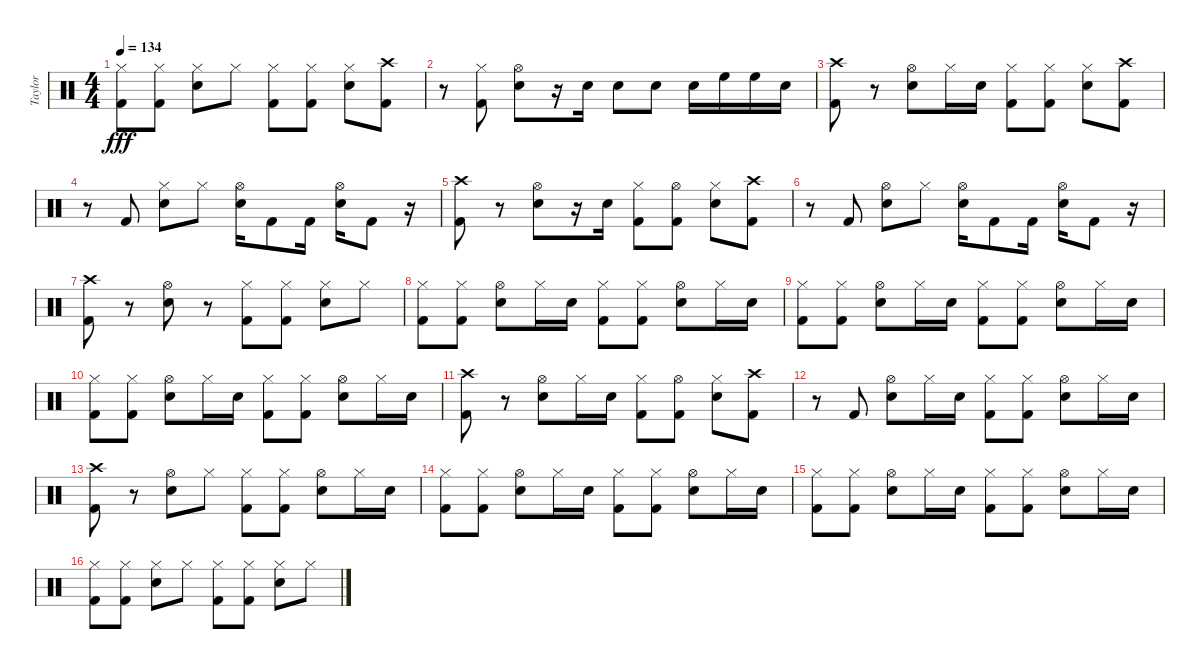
\track ("Taylor" "Taylor") {instrument percussion}
\staff {score}
\articulation defaults
\ts (4 4)
\tempo 134
\clef neutral
\ks c
("Kick (hit) 2" "Hi-Hat (closed)").8{dy fff} ("Kick (hit) 2" "Hi-Hat (closed)").8 ("Snare (hit) 2" "Hi-Hat (closed)").8 "Hi-Hat (closed)".8 ("Kick (hit) 2" "Hi-Hat (closed)").8 ("Kick (hit) 2" "Hi-Hat (closed)").8 ("Snare (hit) 2" "Hi-Hat (closed)").8 ("Kick (hit) 2" "Crash high (hit)").8 |
r.8 ("Kick (hit) 2" "Hi-Hat (closed)").8 ("Snare (hit) 2" "Hi-Hat (open)").8 r.16 "Snare (hit) 2".16 "Snare (hit) 2".8 "Snare (hit) 2".8 "Snare (hit) 2".16 "High Floor Tom (hit)".16 "High Floor Tom (hit)".16 "Snare (hit) 2".16 |
("Kick (hit) 2" "Crash high (hit)").8 r.8 ("Snare (hit) 2" "Hi-Hat (open)").8 "Hi-Hat (closed)".16 "Snare (hit) 2".16 ("Kick (hit) 2" "Hi-Hat (closed)").8 ("Kick (hit) 2" "Hi-Hat (closed)").8 ("Snare (hit) 2" "Hi-Hat (closed)").8 ("Kick (hit) 2" "Crash high (hit)").8 |
r.8 "Kick (hit) 2".8 ("Snare (hit) 2" "Hi-Hat (closed)").8 "Hi-Hat (closed)".8 ("Snare (hit) 2" "Hi-Hat (open)").16 "Kick (hit) 2".8 "Kick (hit) 2".16 ("Snare (hit) 2" "Hi-Hat (open)").16 "Kick (hit) 2".8 r.16 |
("Kick (hit) 2" "Crash high (hit)").8 r.8 ("Snare (hit) 2" "Hi-Hat (open)").8 r.16 "Snare (hit) 2".16 ("Kick (hit) 2" "Hi-Hat (closed)").8 ("Kick (hit) 2" "Hi-Hat (open)").8 ("Snare (hit) 2" "Hi-Hat (closed)").8 ("Kick (hit) 2" "Crash high (hit)").8 |
r.8 "Kick (hit) 2".8 ("Snare (hit) 2" "Hi-Hat (open)").8 "Hi-Hat (closed)".8 ("Snare (hit) 2" "Hi-Hat (open)").16 "Kick (hit) 2".8 "Kick (hit) 2".16 ("Snare (hit) 2" "Hi-Hat (open)").16 "Kick (hit) 2".8 r.16 |
("Kick (hit) 2" "Crash high (hit)").8 r.8 ("Snare (hit) 2" "Hi-Hat (open)").8 r.8 ("Kick (hit) 2" "Hi-Hat (closed)").8 ("Kick (hit) 2" "Hi-Hat (closed)").8 ("Snare (hit) 2" "Hi-Hat (closed)").8 "Hi-Hat (closed)".8 |
("Kick (hit) 2" "Hi-Hat (closed)").8 ("Kick (hit) 2" "Hi-Hat (closed)").8 ("Snare (hit) 2" "Hi-Hat (open)").8 "Hi-Hat (closed)".16 "Snare (hit) 2".16 ("Kick (hit) 2" "Hi-Hat (closed)").8 ("Kick (hit) 2" "Hi-Hat (closed)").8 ("Snare (hit) 2" "Hi-Hat (open)").8 "Hi-Hat (closed)".16 "Snare (hit) 2".16 |
("Kick (hit) 2" "Hi-Hat (closed)").8 ("Kick (hit) 2" "Hi-Hat (closed)").8 ("Snare (hit) 2" "Hi-Hat (open)").8 "Hi-Hat (closed)".16 "Snare (hit) 2".16 ("Kick (hit) 2" "Hi-Hat (closed)").8 ("Kick (hit) 2" "Hi-Hat (closed)").8 ("Snare (hit) 2" "Hi-Hat (open)").8 "Hi-Hat (closed)".16 "Snare (hit) 2".16 |
("Kick (hit) 2" "Hi-Hat (closed)").8 ("Kick (hit) 2" "Hi-Hat (closed)").8 ("Snare (hit) 2" "Hi-Hat (open)").8 "Hi-Hat (closed)".16 "Snare (hit) 2".16 ("Kick (hit) 2" "Hi-Hat (closed)").8 ("Kick (hit) 2" "Hi-Hat (closed)").8 ("Snare (hit) 2" "Hi-Hat (open)").8 "Hi-Hat (closed)".16 "Snare (hit) 2".16 |
("Kick (hit) 2" "Crash high (hit)").8 r.8 ("Snare (hit) 2" "Hi-Hat (open)").8 "Hi-Hat (closed)".16 "Snare (hit) 2".16 ("Kick (hit) 2" "Hi-Hat (closed)").8 ("Kick (hit) 2" "Hi-Hat (open)").8 ("Snare (hit) 2" "Hi-Hat (closed)").8 ("Kick (hit) 2" "Crash high (hit)").8 |
r.8 "Kick (hit) 2".8 ("Snare (hit) 2" "Hi-Hat (open)").8 "Hi-Hat (closed)".16 "Snare (hit) 2".16 ("Kick (hit) 2" "Hi-Hat (closed)").8 ("Kick (hit) 2" "Hi-Hat (closed)").8 ("Snare (hit) 2" "Hi-Hat (open)").8 "Hi-Hat (closed)".16 "Snare (hit) 2".16 |
("Kick (hit) 2" "Crash high (hit)").8 r.8 ("Snare (hit) 2" "Hi-Hat (open)").8 "Hi-Hat (closed)".8 ("Kick (hit) 2" "Hi-Hat (closed)").8 ("Kick (hit) 2" "Hi-Hat (closed)").8 ("Snare (hit) 2" "Hi-Hat (open)").8 "Hi-Hat (closed)".16 "Snare (hit) 2".16 |
("Kick (hit) 2" "Hi-Hat (closed)").8 ("Kick (hit) 2" "Hi-Hat (closed)").8 ("Snare (hit) 2" "Hi-Hat (open)").8 "Hi-Hat (closed)".16 "Snare (hit) 2".16 ("Kick (hit) 2" "Hi-Hat (closed)").8 ("Kick (hit) 2" "Hi-Hat (closed)").8 ("Snare (hit) 2" "Hi-Hat (open)").8 "Hi-Hat (closed)".16 "Snare (hit) 2".16 |
("Kick (hit) 2" "Hi-Hat (closed)").8 ("Kick (hit) 2" "Hi-Hat (closed)").8 ("Snare (hit) 2" "Hi-Hat (open)").8 "Hi-Hat (closed)".16 "Snare (hit) 2".16 ("Kick (hit) 2" "Hi-Hat (closed)").8 ("Kick (hit) 2" "Hi-Hat (closed)").8 ("Snare (hit) 2" "Hi-Hat (open)").8 "Hi-Hat (closed)".16 "Snare (hit) 2".16 |
("Kick (hit) 2" "Hi-Hat (closed)").8 ("Kick (hit) 2" "Hi-Hat (closed)").8 ("Snare (hit) 2" "Hi-Hat (closed)").8 "Hi-Hat (closed)".8 ("Kick (hit) 2" "Hi-Hat (closed)").8 ("Kick (hit) 2" "Hi-Hat (closed)").8 ("Snare (hit) 2" "Hi-Hat (closed)").8 "Hi-Hat (closed)".8
